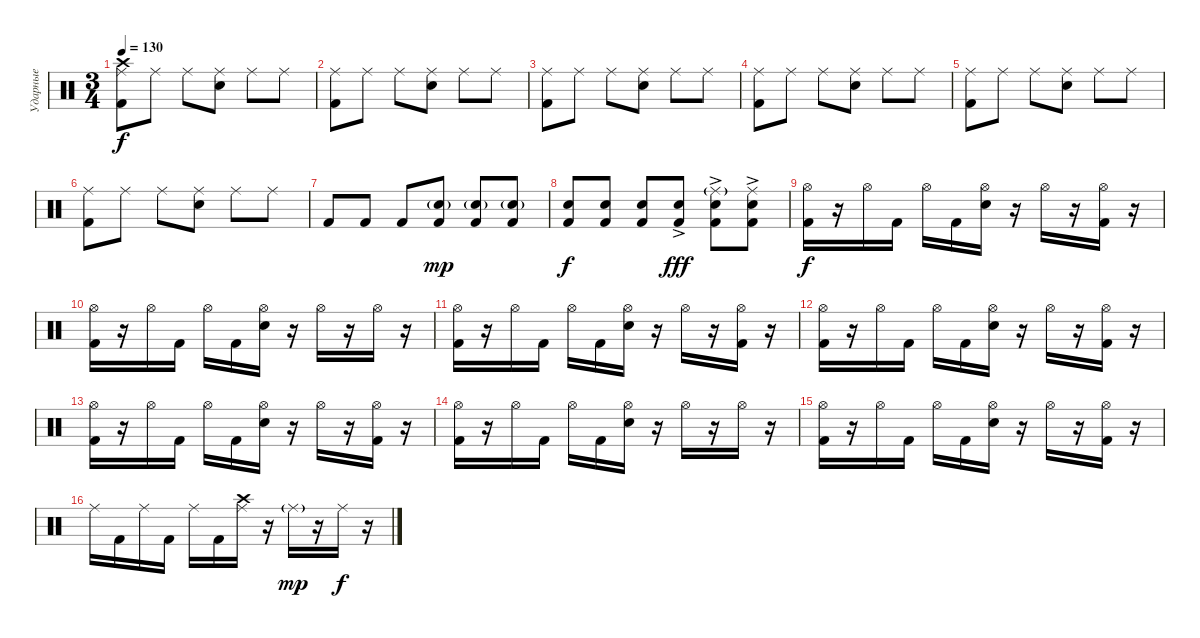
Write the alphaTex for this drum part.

\track ("Ударные" "Ударные") {instrument percussion}
\staff {score}
\articulation defaults
\ts (3 4)
\tempo 130
\clef neutral
\ks c
("Ride (middle)" "Crash high (hit)" "Kick (hit) 2").8{dy f} "Ride (middle)".8 "Ride (middle)".8 ("Ride (middle)" "Snare (hit) 2").8 "Ride (middle)".8 "Ride (middle)".8 |
("Ride (middle)" "Kick (hit) 2").8 "Ride (middle)".8 "Ride (middle)".8 ("Ride (middle)" "Snare (hit) 2").8 "Ride (middle)".8 "Ride (middle)".8 |
("Ride (middle)" "Kick (hit) 2").8 "Ride (middle)".8 "Ride (middle)".8 ("Ride (middle)" "Snare (hit) 2").8 "Ride (middle)".8 "Ride (middle)".8 |
("Ride (middle)" "Kick (hit) 2").8 "Ride (middle)".8 "Ride (middle)".8 ("Ride (middle)" "Snare (hit) 2").8 "Ride (middle)".8 "Ride (middle)".8 |
("Ride (middle)" "Kick (hit) 2").8 "Ride (middle)".8 "Ride (middle)".8 ("Ride (middle)" "Snare (hit) 2").8 "Ride (middle)".8 "Ride (middle)".8 |
("Ride (middle)" "Kick (hit) 2").8 "Ride (middle)".8 "Ride (middle)".8 ("Ride (middle)" "Snare (hit) 2").8 "Ride (middle)".8 "Ride (middle)".8 |
"Kick (hit) 2".8 "Kick (hit) 2".8 "Kick (hit) 2".8 ("Snare (hit) 2"{g} "Kick (hit) 2").8{dy mp} ("Snare (hit) 2"{g} "Kick (hit) 2").8 ("Snare (hit) 2"{g} "Kick (hit) 2").8 |
("Snare (hit) 2" "Kick (hit) 2").8{dy f} ("Snare (hit) 2" "Kick (hit) 2").8 ("Snare (hit) 2" "Kick (hit) 2").8 ("Snare (hit) 2"{ac} "Kick (hit) 2").8{dy fff} ("Ride (middle)"{g} "Snare (hit) 2"{ac} "Kick (hit) 2").8 ("Ride (middle)" "Snare (hit) 2"{ac} "Kick (hit) 2").8 |
("Hi-Hat (open)" "Kick (hit) 2").16{dy f} r.16 "Hi-Hat (open)".16 "Kick (hit) 2".16 "Hi-Hat (open)".16 "Kick (hit) 2".16 ("Snare (hit) 2" "Hi-Hat (open)").16 r.16 "Hi-Hat (open)".16 r.16 ("Hi-Hat (open)" "Kick (hit) 2").16 r.16 |
("Hi-Hat (open)" "Kick (hit) 2").16 r.16 "Hi-Hat (open)".16 "Kick (hit) 2".16 "Hi-Hat (open)".16 "Kick (hit) 2".16 ("Snare (hit) 2" "Hi-Hat (open)").16 r.16 "Hi-Hat (open)".16 r.16 "Hi-Hat (open)".16 r.16 |
("Hi-Hat (open)" "Kick (hit) 2").16 r.16 "Hi-Hat (open)".16 "Kick (hit) 2".16 "Hi-Hat (open)".16 "Kick (hit) 2".16 ("Snare (hit) 2" "Hi-Hat (open)").16 r.16 "Hi-Hat (open)".16 r.16 ("Hi-Hat (open)" "Kick (hit) 2").16 r.16 |
("Hi-Hat (open)" "Kick (hit) 2").16 r.16 "Hi-Hat (open)".16 "Kick (hit) 2".16 "Hi-Hat (open)".16 "Kick (hit) 2".16 ("Snare (hit) 2" "Hi-Hat (open)").16 r.16 "Hi-Hat (open)".16 r.16 ("Hi-Hat (open)" "Kick (hit) 2").16 r.16 |
("Hi-Hat (open)" "Kick (hit) 2").16 r.16 "Hi-Hat (open)".16 "Kick (hit) 2".16 "Hi-Hat (open)".16 "Kick (hit) 2".16 ("Snare (hit) 2" "Hi-Hat (open)").16 r.16 "Hi-Hat (open)".16 r.16 ("Hi-Hat (open)" "Kick (hit) 2").16 r.16 |
("Hi-Hat (open)" "Kick (hit) 2").16 r.16 "Hi-Hat (open)".16 "Kick (hit) 2".16 "Hi-Hat (open)".16 "Kick (hit) 2".16 ("Snare (hit) 2" "Hi-Hat (open)").16 r.16 "Hi-Hat (open)".16 r.16 "Hi-Hat (open)".16 r.16 |
("Hi-Hat (open)" "Kick (hit) 2").16 r.16 "Hi-Hat (open)".16 "Kick (hit) 2".16 "Hi-Hat (open)".16 "Kick (hit) 2".16 ("Snare (hit) 2" "Hi-Hat (open)").16 r.16 "Hi-Hat (open)".16 r.16 ("Hi-Hat (open)" "Kick (hit) 2").16 r.16 |
"Ride (middle)".16 "Kick (hit) 2".16 "Ride (middle)".16 "Kick (hit) 2".16 "Ride (middle)".16 "Kick (hit) 2".16 ("Ride (middle)" "Crash high (hit)").16 r.16 "Ride (middle)"{g}.16{dy mp} r.16 "Ride (middle)".16{dy f} r.16
